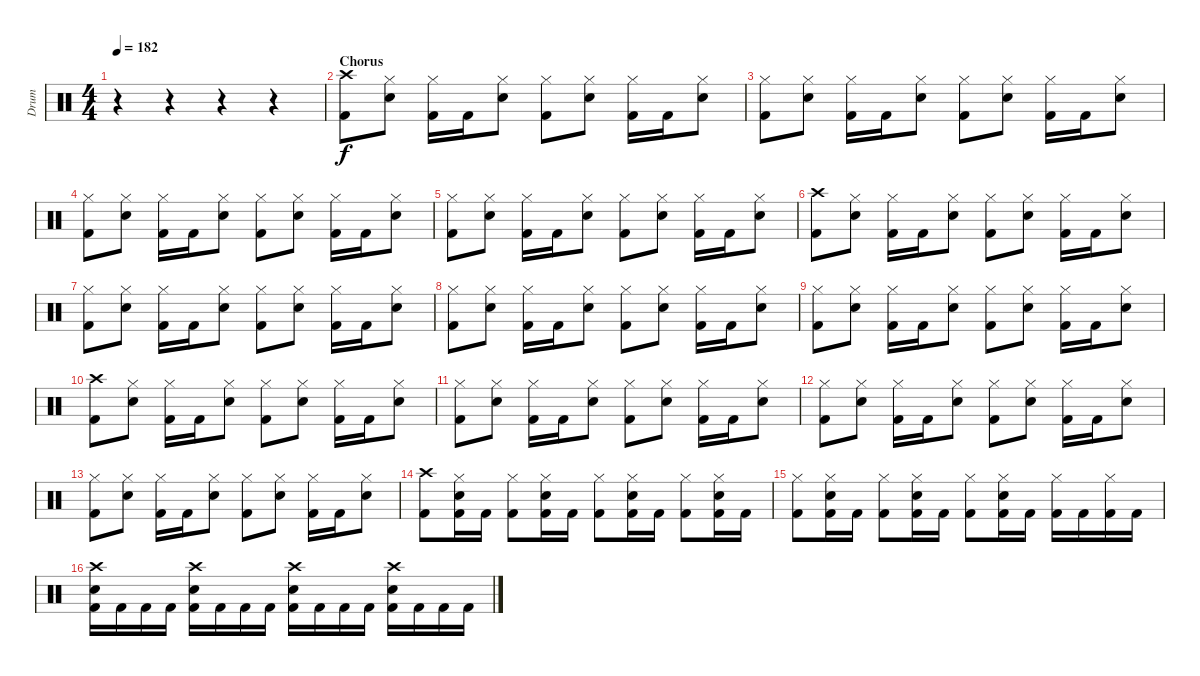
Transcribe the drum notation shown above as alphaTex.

\track ("Drum" "Drum") {instrument percussion}
\staff {score}
\articulation defaults
\ts (4 4)
\tempo 182
\clef neutral
\ks c
r.4{dy f} r.4 r.4 r.4 |
\section ("" "Chorus")
("Crash high (hit)" "Kick (hit) 2").8 ("Hi-Hat (closed)" "Electric Snare (hit)").8 ("Hi-Hat (closed)" "Kick (hit) 2").16 "Kick (hit) 2".16 ("Hi-Hat (closed)" "Electric Snare (hit)").8 ("Hi-Hat (closed)" "Kick (hit) 2").8 ("Hi-Hat (closed)" "Electric Snare (hit)").8 ("Hi-Hat (closed)" "Kick (hit) 2").16 "Kick (hit) 2".16 ("Hi-Hat (closed)" "Electric Snare (hit)").8 |
("Hi-Hat (closed)" "Kick (hit) 2").8 ("Hi-Hat (closed)" "Electric Snare (hit)").8 ("Hi-Hat (closed)" "Kick (hit) 2").16 "Kick (hit) 2".16 ("Hi-Hat (closed)" "Electric Snare (hit)").8 ("Hi-Hat (closed)" "Kick (hit) 2").8 ("Hi-Hat (closed)" "Electric Snare (hit)").8 ("Hi-Hat (closed)" "Kick (hit) 2").16 "Kick (hit) 2".16 ("Hi-Hat (closed)" "Electric Snare (hit)").8 |
("Hi-Hat (closed)" "Kick (hit) 2").8 ("Hi-Hat (closed)" "Electric Snare (hit)").8 ("Hi-Hat (closed)" "Kick (hit) 2").16 "Kick (hit) 2".16 ("Hi-Hat (closed)" "Electric Snare (hit)").8 ("Hi-Hat (closed)" "Kick (hit) 2").8 ("Hi-Hat (closed)" "Electric Snare (hit)").8 ("Hi-Hat (closed)" "Kick (hit) 2").16 "Kick (hit) 2".16 ("Hi-Hat (closed)" "Electric Snare (hit)").8 |
("Hi-Hat (closed)" "Kick (hit) 2").8 ("Hi-Hat (closed)" "Electric Snare (hit)").8 ("Hi-Hat (closed)" "Kick (hit) 2").16 "Kick (hit) 2".16 ("Hi-Hat (closed)" "Electric Snare (hit)").8 ("Hi-Hat (closed)" "Kick (hit) 2").8 ("Hi-Hat (closed)" "Electric Snare (hit)").8 ("Hi-Hat (closed)" "Kick (hit) 2").16 "Kick (hit) 2".16 ("Hi-Hat (closed)" "Electric Snare (hit)").8 |
("Crash high (hit)" "Kick (hit) 2").8 ("Hi-Hat (closed)" "Electric Snare (hit)").8 ("Hi-Hat (closed)" "Kick (hit) 2").16 "Kick (hit) 2".16 ("Hi-Hat (closed)" "Electric Snare (hit)").8 ("Hi-Hat (closed)" "Kick (hit) 2").8 ("Hi-Hat (closed)" "Electric Snare (hit)").8 ("Hi-Hat (closed)" "Kick (hit) 2").16 "Kick (hit) 2".16 ("Hi-Hat (closed)" "Electric Snare (hit)").8 |
("Hi-Hat (closed)" "Kick (hit) 2").8 ("Hi-Hat (closed)" "Electric Snare (hit)").8 ("Hi-Hat (closed)" "Kick (hit) 2").16 "Kick (hit) 2".16 ("Hi-Hat (closed)" "Electric Snare (hit)").8 ("Hi-Hat (closed)" "Kick (hit) 2").8 ("Hi-Hat (closed)" "Electric Snare (hit)").8 ("Hi-Hat (closed)" "Kick (hit) 2").16 "Kick (hit) 2".16 ("Hi-Hat (closed)" "Electric Snare (hit)").8 |
("Hi-Hat (closed)" "Kick (hit) 2").8 ("Hi-Hat (closed)" "Electric Snare (hit)").8 ("Hi-Hat (closed)" "Kick (hit) 2").16 "Kick (hit) 2".16 ("Hi-Hat (closed)" "Electric Snare (hit)").8 ("Hi-Hat (closed)" "Kick (hit) 2").8 ("Hi-Hat (closed)" "Electric Snare (hit)").8 ("Hi-Hat (closed)" "Kick (hit) 2").16 "Kick (hit) 2".16 ("Hi-Hat (closed)" "Electric Snare (hit)").8 |
("Hi-Hat (closed)" "Kick (hit) 2").8 ("Hi-Hat (closed)" "Electric Snare (hit)").8 ("Hi-Hat (closed)" "Kick (hit) 2").16 "Kick (hit) 2".16 ("Hi-Hat (closed)" "Electric Snare (hit)").8 ("Hi-Hat (closed)" "Kick (hit) 2").8 ("Hi-Hat (closed)" "Electric Snare (hit)").8 ("Hi-Hat (closed)" "Kick (hit) 2").16 "Kick (hit) 2".16 ("Hi-Hat (closed)" "Electric Snare (hit)").8 |
("Crash high (hit)" "Kick (hit) 2").8 ("Hi-Hat (closed)" "Electric Snare (hit)").8 ("Hi-Hat (closed)" "Kick (hit) 2").16 "Kick (hit) 2".16 ("Hi-Hat (closed)" "Electric Snare (hit)").8 ("Hi-Hat (closed)" "Kick (hit) 2").8 ("Hi-Hat (closed)" "Electric Snare (hit)").8 ("Hi-Hat (closed)" "Kick (hit) 2").16 "Kick (hit) 2".16 ("Hi-Hat (closed)" "Electric Snare (hit)").8 |
("Hi-Hat (closed)" "Kick (hit) 2").8 ("Hi-Hat (closed)" "Electric Snare (hit)").8 ("Hi-Hat (closed)" "Kick (hit) 2").16 "Kick (hit) 2".16 ("Hi-Hat (closed)" "Electric Snare (hit)").8 ("Hi-Hat (closed)" "Kick (hit) 2").8 ("Hi-Hat (closed)" "Electric Snare (hit)").8 ("Hi-Hat (closed)" "Kick (hit) 2").16 "Kick (hit) 2".16 ("Hi-Hat (closed)" "Electric Snare (hit)").8 |
("Hi-Hat (closed)" "Kick (hit) 2").8 ("Hi-Hat (closed)" "Electric Snare (hit)").8 ("Hi-Hat (closed)" "Kick (hit) 2").16 "Kick (hit) 2".16 ("Hi-Hat (closed)" "Electric Snare (hit)").8 ("Hi-Hat (closed)" "Kick (hit) 2").8 ("Hi-Hat (closed)" "Electric Snare (hit)").8 ("Hi-Hat (closed)" "Kick (hit) 2").16 "Kick (hit) 2".16 ("Hi-Hat (closed)" "Electric Snare (hit)").8 |
("Hi-Hat (closed)" "Kick (hit) 2").8 ("Hi-Hat (closed)" "Electric Snare (hit)").8 ("Hi-Hat (closed)" "Kick (hit) 2").16 "Kick (hit) 2".16 ("Hi-Hat (closed)" "Electric Snare (hit)").8 ("Hi-Hat (closed)" "Kick (hit) 2").8 ("Hi-Hat (closed)" "Electric Snare (hit)").8 ("Hi-Hat (closed)" "Kick (hit) 2").16 "Kick (hit) 2".16 ("Hi-Hat (closed)" "Electric Snare (hit)").8 |
("Crash high (hit)" "Kick (hit) 2").8 ("Hi-Hat (closed)" "Electric Snare (hit)" "Kick (hit) 2").16 "Kick (hit) 2".16 ("Hi-Hat (closed)" "Kick (hit) 2").8 ("Hi-Hat (closed)" "Electric Snare (hit)" "Kick (hit) 2").16 "Kick (hit) 2".16 ("Hi-Hat (closed)" "Kick (hit) 2").8 ("Hi-Hat (closed)" "Electric Snare (hit)" "Kick (hit) 2").16 "Kick (hit) 2".16 ("Hi-Hat (closed)" "Kick (hit) 2").8 ("Hi-Hat (closed)" "Electric Snare (hit)" "Kick (hit) 2").16 "Kick (hit) 2".16 |
("Hi-Hat (closed)" "Kick (hit) 2").8 ("Hi-Hat (closed)" "Electric Snare (hit)" "Kick (hit) 2").16 "Kick (hit) 2".16 ("Hi-Hat (closed)" "Kick (hit) 2").8 ("Hi-Hat (closed)" "Electric Snare (hit)" "Kick (hit) 2").16 "Kick (hit) 2".16 ("Hi-Hat (closed)" "Kick (hit) 2").8 ("Hi-Hat (closed)" "Electric Snare (hit)" "Kick (hit) 2").16 "Kick (hit) 2".16 ("Hi-Hat (closed)" "Kick (hit) 2").16 "Kick (hit) 2".16 ("Hi-Hat (closed)" "Kick (hit) 2").16 "Kick (hit) 2".16 |
("Crash high (hit)" "Electric Snare (hit)" "Kick (hit) 2").16 "Kick (hit) 2".16 "Kick (hit) 2".16 "Kick (hit) 2".16 ("Crash high (hit)" "Electric Snare (hit)" "Kick (hit) 2").16 "Kick (hit) 2".16 "Kick (hit) 2".16 "Kick (hit) 2".16 ("Crash high (hit)" "Electric Snare (hit)" "Kick (hit) 2").16 "Kick (hit) 2".16 "Kick (hit) 2".16 "Kick (hit) 2".16 ("Crash high (hit)" "Electric Snare (hit)" "Kick (hit) 2").16 "Kick (hit) 2".16 "Kick (hit) 2".16 "Kick (hit) 2".16
